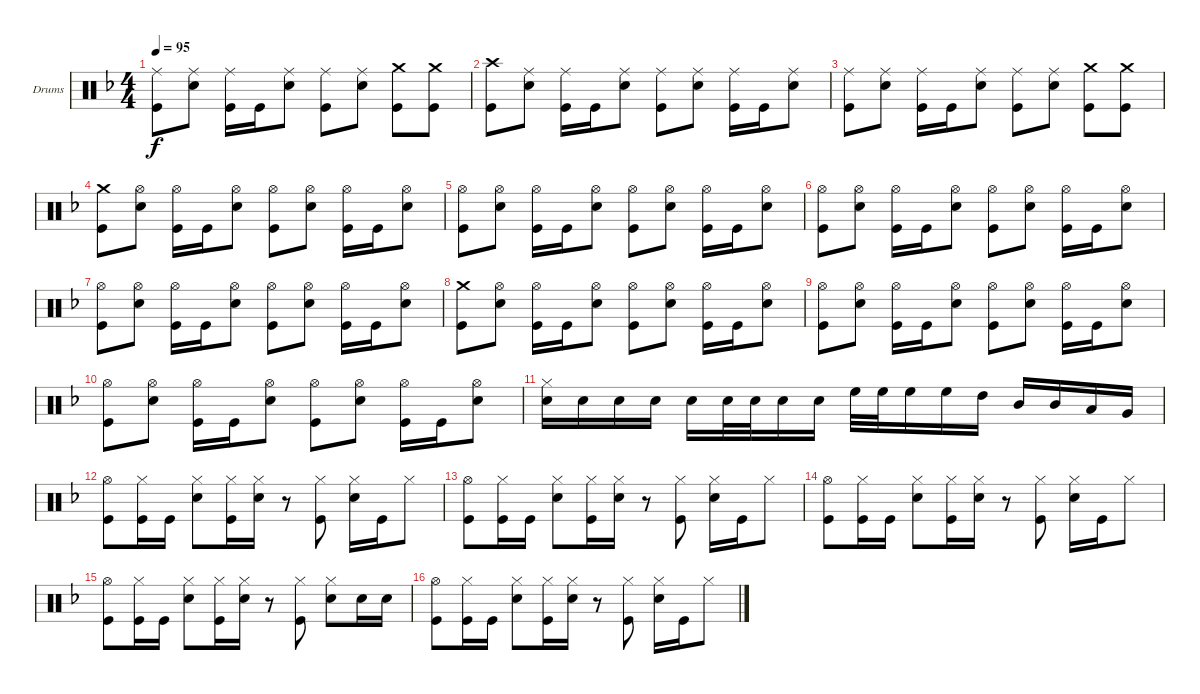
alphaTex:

\bracketExtendMode groupsimilarinstruments
\firstSystemTrackNameOrientation horizontal
\otherSystemsTrackNameOrientation horizontal
\track ("Александр Манякин" "Drums") {instrument percussion}
\staff {score}
\articulation defaults
\ts (4 4)
\tempo 95
\clef neutral
\ks f
("Kick (hit)" "Ride (middle)").8{dy f} ("Snare (hit) 2" "Ride (middle)").8 ("Kick (hit)" "Ride (middle)").16 "Kick (hit)".16 ("Snare (hit) 2" "Ride (middle)").8 ("Kick (hit)" "Ride (middle)").8 ("Snare (hit) 2" "Ride (middle)").8 ("Kick (hit)" "Crash medium (hit)").8 ("Kick (hit)" "Crash medium (hit)").8 |
("Kick (hit)" "Crash high (hit)").8 ("Snare (hit) 2" "Ride (middle)").8 ("Kick (hit)" "Ride (middle)").16 "Kick (hit)".16 ("Snare (hit) 2" "Ride (middle)").8 ("Kick (hit)" "Ride (middle)").8 ("Snare (hit) 2" "Ride (middle)").8 ("Kick (hit)" "Ride (middle)").16 "Kick (hit)".16 ("Snare (hit) 2" "Ride (middle)").8 |
("Kick (hit)" "Ride (middle)").8 ("Snare (hit) 2" "Ride (middle)").8 ("Kick (hit)" "Ride (middle)").16 "Kick (hit)".16 ("Snare (hit) 2" "Ride (middle)").8 ("Kick (hit)" "Ride (middle)").8 ("Snare (hit) 2" "Ride (middle)").8 ("Kick (hit)" "Crash medium (hit)").8 ("Kick (hit)" "Crash medium (hit)").8 |
("Kick (hit)" "Crash medium (hit)").8 ("Snare (hit) 2" "Hi-Hat (open)").8 ("Kick (hit)" "Hi-Hat (open)").16 "Kick (hit)".16 ("Snare (hit) 2" "Hi-Hat (open)").8 ("Kick (hit)" "Hi-Hat (open)").8 ("Snare (hit) 2" "Hi-Hat (open)").8 ("Kick (hit)" "Hi-Hat (open)").16 "Kick (hit)".16 ("Snare (hit) 2" "Hi-Hat (open)").8 |
("Kick (hit)" "Hi-Hat (open)").8 ("Snare (hit) 2" "Hi-Hat (open)").8 ("Kick (hit)" "Hi-Hat (open)").16 "Kick (hit)".16 ("Snare (hit) 2" "Hi-Hat (open)").8 ("Kick (hit)" "Hi-Hat (open)").8 ("Snare (hit) 2" "Hi-Hat (open)").8 ("Kick (hit)" "Hi-Hat (open)").16 "Kick (hit)".16 ("Snare (hit) 2" "Hi-Hat (open)").8 |
("Kick (hit)" "Hi-Hat (open)").8 ("Snare (hit) 2" "Hi-Hat (open)").8 ("Kick (hit)" "Hi-Hat (open)").16 "Kick (hit)".16 ("Snare (hit) 2" "Hi-Hat (open)").8 ("Kick (hit)" "Hi-Hat (open)").8 ("Snare (hit) 2" "Hi-Hat (open)").8 ("Kick (hit)" "Hi-Hat (open)").16 "Kick (hit)".16 ("Snare (hit) 2" "Hi-Hat (open)").8 |
("Kick (hit)" "Hi-Hat (open)").8 ("Snare (hit) 2" "Hi-Hat (open)").8 ("Kick (hit)" "Hi-Hat (open)").16 "Kick (hit)".16 ("Snare (hit) 2" "Hi-Hat (open)").8 ("Kick (hit)" "Hi-Hat (open)").8 ("Snare (hit) 2" "Hi-Hat (open)").8 ("Kick (hit)" "Hi-Hat (open)").16 "Kick (hit)".16 ("Snare (hit) 2" "Hi-Hat (open)").8 |
("Kick (hit)" "Crash medium (hit)").8 ("Snare (hit) 2" "Hi-Hat (open)").8 ("Kick (hit)" "Hi-Hat (open)").16 "Kick (hit)".16 ("Snare (hit) 2" "Hi-Hat (open)").8 ("Kick (hit)" "Hi-Hat (open)").8 ("Snare (hit) 2" "Hi-Hat (open)").8 ("Kick (hit)" "Hi-Hat (open)").16 "Kick (hit)".16 ("Snare (hit) 2" "Hi-Hat (open)").8 |
("Kick (hit)" "Hi-Hat (open)").8 ("Snare (hit) 2" "Hi-Hat (open)").8 ("Kick (hit)" "Hi-Hat (open)").16 "Kick (hit)".16 ("Snare (hit) 2" "Hi-Hat (open)").8 ("Kick (hit)" "Hi-Hat (open)").8 ("Snare (hit) 2" "Hi-Hat (open)").8 ("Kick (hit)" "Hi-Hat (open)").16 "Kick (hit)".16 ("Snare (hit) 2" "Hi-Hat (open)").8 |
("Kick (hit)" "Hi-Hat (open)").8 ("Snare (hit) 2" "Hi-Hat (open)").8 ("Kick (hit)" "Hi-Hat (open)").16 "Kick (hit)".16 ("Snare (hit) 2" "Hi-Hat (open)").8 ("Kick (hit)" "Hi-Hat (open)").8 ("Snare (hit) 2" "Hi-Hat (open)").8 ("Kick (hit)" "Hi-Hat (open)").16 "Kick (hit)".16 ("Snare (hit) 2" "Hi-Hat (open)").8 |
("Snare (hit) 2" "Hi-Hat (closed)").16 "Snare (hit) 2".16 "Snare (hit) 2".16 "Snare (hit) 2".16 "Snare (hit) 2".16 "Snare (hit) 2".32 "Snare (hit) 2".32 "Snare (hit) 2".16 "Snare (hit) 2".16 "High Floor Tom (hit)".32 "High Floor Tom (hit)".32 "High Floor Tom (hit)".16 "High Floor Tom (hit)".16 "High Tom (hit)".16 "Mid Tom (hit)".16 "Mid Tom (hit)".16 "Low Tom (hit)".16 "Very Low Tom (hit)".16 |
("Kick (hit)" "Hi-Hat (open)").8 ("Kick (hit)" "Hi-Hat (closed)").16 "Kick (hit)".16 ("Snare (hit) 2" "Hi-Hat (closed)").8 ("Kick (hit)" "Hi-Hat (closed)").16 ("Snare (hit) 2" "Hi-Hat (closed)").16 r.8 ("Kick (hit)" "Hi-Hat (closed)").8 ("Snare (hit) 2" "Hi-Hat (closed)").16 "Kick (hit)".16 "Hi-Hat (closed)".8 |
("Kick (hit)" "Hi-Hat (open)").8 ("Kick (hit)" "Hi-Hat (closed)").16 "Kick (hit)".16 ("Snare (hit) 2" "Hi-Hat (closed)").8 ("Kick (hit)" "Hi-Hat (closed)").16 ("Snare (hit) 2" "Hi-Hat (closed)").16 r.8 ("Kick (hit)" "Hi-Hat (closed)").8 ("Snare (hit) 2" "Hi-Hat (closed)").16 "Kick (hit)".16 "Hi-Hat (closed)".8 |
("Kick (hit)" "Hi-Hat (open)").8 ("Kick (hit)" "Hi-Hat (closed)").16 "Kick (hit)".16 ("Snare (hit) 2" "Hi-Hat (closed)").8 ("Kick (hit)" "Hi-Hat (closed)").16 ("Snare (hit) 2" "Hi-Hat (closed)").16 r.8 ("Kick (hit)" "Hi-Hat (closed)").8 ("Snare (hit) 2" "Hi-Hat (closed)").16 "Kick (hit)".16 "Hi-Hat (closed)".8 |
("Kick (hit)" "Hi-Hat (open)").8 ("Kick (hit)" "Hi-Hat (closed)").16 "Kick (hit)".16 ("Snare (hit) 2" "Hi-Hat (closed)").8 ("Kick (hit)" "Hi-Hat (closed)").16 ("Snare (hit) 2" "Hi-Hat (closed)").16 r.8 ("Kick (hit)" "Hi-Hat (closed)").8 ("Snare (hit) 2" "Hi-Hat (closed)").8 "Snare (hit) 2".16 "Snare (hit) 2".16 |
("Kick (hit)" "Hi-Hat (open)").8 ("Kick (hit)" "Hi-Hat (closed)").16 "Kick (hit)".16 ("Snare (hit) 2" "Hi-Hat (closed)").8 ("Kick (hit)" "Hi-Hat (closed)").16 ("Snare (hit) 2" "Hi-Hat (closed)").16 r.8 ("Kick (hit)" "Hi-Hat (closed)").8 ("Snare (hit) 2" "Hi-Hat (closed)").16 "Kick (hit)".16 "Hi-Hat (closed)".8
